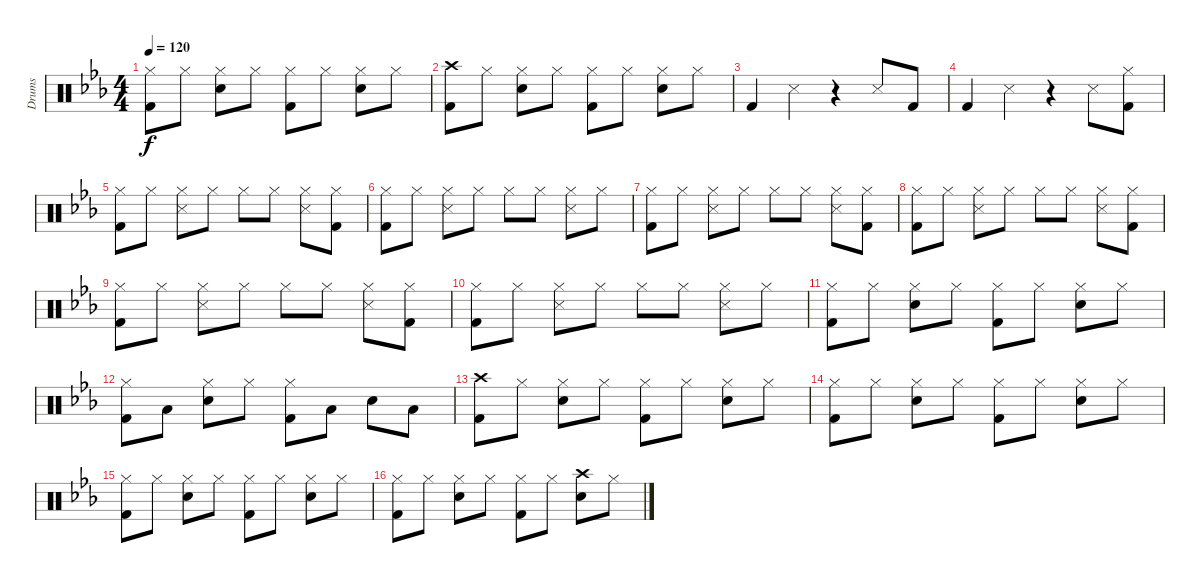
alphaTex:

\track ("Drums" "Drums") {instrument percussion}
\staff {score}
\articulation defaults
\ts (4 4)
\tempo 120
\clef neutral
\ks eb
("Hi-Hat (closed)" "Kick (hit) 2").8{dy f} "Hi-Hat (closed)".8 ("Hi-Hat (closed)" "Snare (hit) 2").8 "Hi-Hat (closed)".8 ("Hi-Hat (closed)" "Kick (hit) 2").8 "Hi-Hat (closed)".8 ("Hi-Hat (closed)" "Snare (hit) 2").8 "Hi-Hat (closed)".8 |
("Crash high (hit)" "Kick (hit) 2").8 "Hi-Hat (closed)".8 ("Hi-Hat (closed)" "Snare (hit) 2").8 "Hi-Hat (closed)".8 ("Hi-Hat (closed)" "Kick (hit) 2").8 "Hi-Hat (closed)".8 ("Hi-Hat (closed)" "Snare (hit) 2").8 "Hi-Hat (closed)".8 |
"Kick (hit) 2".4 "Snare (side stick) 3".4 r.4 "Snare (side stick) 3".8 "Kick (hit) 2".8 |
"Kick (hit) 2".4 "Snare (side stick) 3".4 r.4 "Snare (side stick) 3".8 ("Hi-Hat (closed)" "Kick (hit) 2").8 |
("Hi-Hat (closed)" "Kick (hit) 2").8 "Hi-Hat (closed)".8 ("Hi-Hat (closed)" "Snare (side stick) 3").8 "Hi-Hat (closed)".8 "Hi-Hat (closed)".8 "Hi-Hat (closed)".8 ("Hi-Hat (closed)" "Snare (side stick) 3").8 ("Hi-Hat (closed)" "Kick (hit) 2").8 |
("Hi-Hat (closed)" "Kick (hit) 2").8 "Hi-Hat (closed)".8 ("Hi-Hat (closed)" "Snare (side stick) 3").8 "Hi-Hat (closed)".8 "Hi-Hat (closed)".8 "Hi-Hat (closed)".8 ("Hi-Hat (closed)" "Snare (side stick) 3").8 "Hi-Hat (closed)".8 |
("Hi-Hat (closed)" "Kick (hit) 2").8 "Hi-Hat (closed)".8 ("Hi-Hat (closed)" "Snare (side stick) 3").8 "Hi-Hat (closed)".8 "Hi-Hat (closed)".8 "Hi-Hat (closed)".8 ("Hi-Hat (closed)" "Snare (side stick) 3").8 ("Hi-Hat (closed)" "Kick (hit) 2").8 |
("Hi-Hat (closed)" "Kick (hit) 2").8 "Hi-Hat (closed)".8 ("Hi-Hat (closed)" "Snare (side stick) 3").8 "Hi-Hat (closed)".8 "Hi-Hat (closed)".8 "Hi-Hat (closed)".8 ("Hi-Hat (closed)" "Snare (side stick) 3").8 ("Hi-Hat (closed)" "Kick (hit) 2").8 |
("Hi-Hat (closed)" "Kick (hit) 2").8 "Hi-Hat (closed)".8 ("Hi-Hat (closed)" "Snare (side stick) 3").8 "Hi-Hat (closed)".8 "Hi-Hat (closed)".8 "Hi-Hat (closed)".8 ("Hi-Hat (closed)" "Snare (side stick) 3").8 ("Hi-Hat (closed)" "Kick (hit) 2").8 |
("Hi-Hat (closed)" "Kick (hit) 2").8 "Hi-Hat (closed)".8 ("Hi-Hat (closed)" "Snare (side stick) 3").8 "Hi-Hat (closed)".8 "Hi-Hat (closed)".8 "Hi-Hat (closed)".8 ("Hi-Hat (closed)" "Snare (side stick) 3").8 "Hi-Hat (closed)".8 |
("Hi-Hat (closed)" "Kick (hit) 2").8 "Hi-Hat (closed)".8 ("Hi-Hat (closed)" "Snare (hit) 2").8 "Hi-Hat (closed)".8 ("Hi-Hat (closed)" "Kick (hit) 2").8 "Hi-Hat (closed)".8 ("Hi-Hat (closed)" "Snare (hit) 2").8 "Hi-Hat (closed)".8 |
("Hi-Hat (closed)" "Kick (hit) 2").8 "Low Tom (hit)".8 ("Hi-Hat (closed)" "Snare (hit) 2").8 "Hi-Hat (closed)".8 ("Hi-Hat (closed)" "Kick (hit) 2").8 "Low Tom (hit)".8 "Snare (hit) 2".8 "Low Tom (hit)".8 |
("Crash high (hit)" "Kick (hit) 2").8 "Hi-Hat (closed)".8 ("Hi-Hat (closed)" "Snare (hit) 2").8 "Hi-Hat (closed)".8 ("Hi-Hat (closed)" "Kick (hit) 2").8 "Hi-Hat (closed)".8 ("Hi-Hat (closed)" "Snare (hit) 2").8 "Hi-Hat (closed)".8 |
("Hi-Hat (closed)" "Kick (hit) 2").8 "Hi-Hat (closed)".8 ("Hi-Hat (closed)" "Snare (hit) 2").8 "Hi-Hat (closed)".8 ("Hi-Hat (closed)" "Kick (hit) 2").8 "Hi-Hat (closed)".8 ("Hi-Hat (closed)" "Snare (hit) 2").8 "Hi-Hat (closed)".8 |
("Hi-Hat (closed)" "Kick (hit) 2").8 "Hi-Hat (closed)".8 ("Hi-Hat (closed)" "Snare (hit) 2").8 "Hi-Hat (closed)".8 ("Hi-Hat (closed)" "Kick (hit) 2").8 "Hi-Hat (closed)".8 ("Hi-Hat (closed)" "Snare (hit) 2").8 "Hi-Hat (closed)".8 |
("Hi-Hat (closed)" "Kick (hit) 2").8 "Hi-Hat (closed)".8 ("Hi-Hat (closed)" "Snare (hit) 2").8 "Hi-Hat (closed)".8 ("Hi-Hat (closed)" "Kick (hit) 2").8 "Hi-Hat (closed)".8 ("Crash high (hit)" "Snare (hit) 2").8 "Hi-Hat (closed)".8
